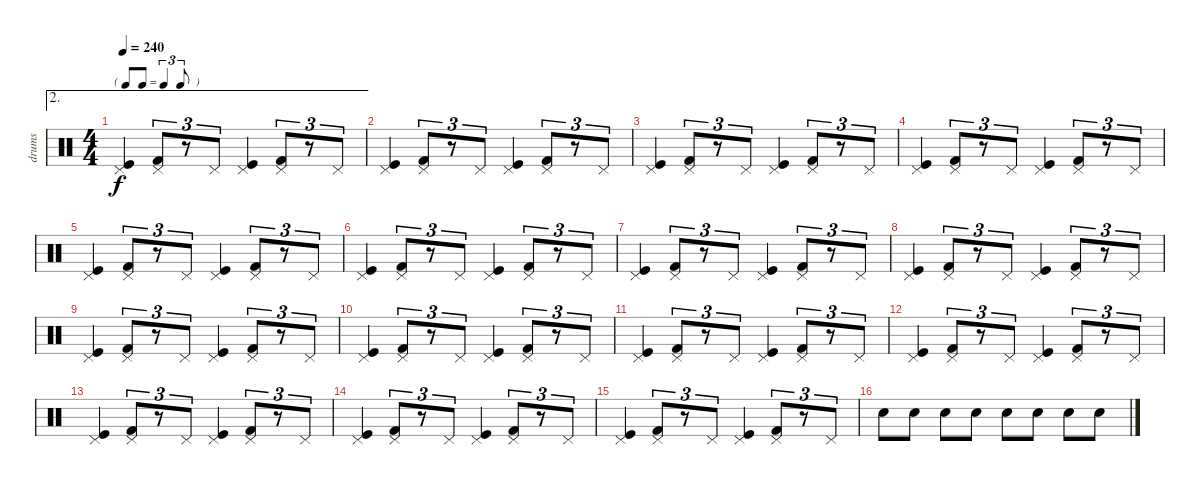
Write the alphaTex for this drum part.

\track ("drums" "drums") {instrument percussion}
\staff {score}
\articulation defaults
\ae 2
\ts (4 4)
\tf triplet8th
\tempo 240
\clef neutral
\ks c
("Pedal Hi-Hat (hit)" "Kick (hit)").4{dy f} ("Pedal Hi-Hat (hit)" "Kick (hit) 2").8{tu (3 2)} r.8{tu (3 2)} "Pedal Hi-Hat (hit)".8{tu (3 2)} ("Pedal Hi-Hat (hit)" "Kick (hit)").4 ("Pedal Hi-Hat (hit)" "Kick (hit) 2").8{tu (3 2)} r.8{tu (3 2)} "Pedal Hi-Hat (hit)".8{tu (3 2)} |
("Pedal Hi-Hat (hit)" "Kick (hit)").4 ("Pedal Hi-Hat (hit)" "Kick (hit) 2").8{tu (3 2)} r.8{tu (3 2)} "Pedal Hi-Hat (hit)".8{tu (3 2)} ("Pedal Hi-Hat (hit)" "Kick (hit)").4 ("Pedal Hi-Hat (hit)" "Kick (hit) 2").8{tu (3 2)} r.8{tu (3 2)} "Pedal Hi-Hat (hit)".8{tu (3 2)} |
("Pedal Hi-Hat (hit)" "Kick (hit)").4 ("Pedal Hi-Hat (hit)" "Kick (hit) 2").8{tu (3 2)} r.8{tu (3 2)} "Pedal Hi-Hat (hit)".8{tu (3 2)} ("Pedal Hi-Hat (hit)" "Kick (hit)").4 ("Pedal Hi-Hat (hit)" "Kick (hit) 2").8{tu (3 2)} r.8{tu (3 2)} "Pedal Hi-Hat (hit)".8{tu (3 2)} |
("Pedal Hi-Hat (hit)" "Kick (hit)").4 ("Pedal Hi-Hat (hit)" "Kick (hit) 2").8{tu (3 2)} r.8{tu (3 2)} "Pedal Hi-Hat (hit)".8{tu (3 2)} ("Pedal Hi-Hat (hit)" "Kick (hit)").4 ("Pedal Hi-Hat (hit)" "Kick (hit) 2").8{tu (3 2)} r.8{tu (3 2)} "Pedal Hi-Hat (hit)".8{tu (3 2)} |
("Pedal Hi-Hat (hit)" "Kick (hit)").4 ("Pedal Hi-Hat (hit)" "Kick (hit) 2").8{tu (3 2)} r.8{tu (3 2)} "Pedal Hi-Hat (hit)".8{tu (3 2)} ("Pedal Hi-Hat (hit)" "Kick (hit)").4 ("Pedal Hi-Hat (hit)" "Kick (hit) 2").8{tu (3 2)} r.8{tu (3 2)} "Pedal Hi-Hat (hit)".8{tu (3 2)} |
("Pedal Hi-Hat (hit)" "Kick (hit)").4 ("Pedal Hi-Hat (hit)" "Kick (hit) 2").8{tu (3 2)} r.8{tu (3 2)} "Pedal Hi-Hat (hit)".8{tu (3 2)} ("Pedal Hi-Hat (hit)" "Kick (hit)").4 ("Pedal Hi-Hat (hit)" "Kick (hit) 2").8{tu (3 2)} r.8{tu (3 2)} "Pedal Hi-Hat (hit)".8{tu (3 2)} |
("Pedal Hi-Hat (hit)" "Kick (hit)").4 ("Pedal Hi-Hat (hit)" "Kick (hit) 2").8{tu (3 2)} r.8{tu (3 2)} "Pedal Hi-Hat (hit)".8{tu (3 2)} ("Pedal Hi-Hat (hit)" "Kick (hit)").4 ("Pedal Hi-Hat (hit)" "Kick (hit) 2").8{tu (3 2)} r.8{tu (3 2)} "Pedal Hi-Hat (hit)".8{tu (3 2)} |
("Pedal Hi-Hat (hit)" "Kick (hit)").4 ("Pedal Hi-Hat (hit)" "Kick (hit) 2").8{tu (3 2)} r.8{tu (3 2)} "Pedal Hi-Hat (hit)".8{tu (3 2)} ("Pedal Hi-Hat (hit)" "Kick (hit)").4 ("Pedal Hi-Hat (hit)" "Kick (hit) 2").8{tu (3 2)} r.8{tu (3 2)} "Pedal Hi-Hat (hit)".8{tu (3 2)} |
("Pedal Hi-Hat (hit)" "Kick (hit)").4 ("Pedal Hi-Hat (hit)" "Kick (hit) 2").8{tu (3 2)} r.8{tu (3 2)} "Pedal Hi-Hat (hit)".8{tu (3 2)} ("Pedal Hi-Hat (hit)" "Kick (hit)").4 ("Pedal Hi-Hat (hit)" "Kick (hit) 2").8{tu (3 2)} r.8{tu (3 2)} "Pedal Hi-Hat (hit)".8{tu (3 2)} |
("Pedal Hi-Hat (hit)" "Kick (hit)").4 ("Pedal Hi-Hat (hit)" "Kick (hit) 2").8{tu (3 2)} r.8{tu (3 2)} "Pedal Hi-Hat (hit)".8{tu (3 2)} ("Pedal Hi-Hat (hit)" "Kick (hit)").4 ("Pedal Hi-Hat (hit)" "Kick (hit) 2").8{tu (3 2)} r.8{tu (3 2)} "Pedal Hi-Hat (hit)".8{tu (3 2)} |
("Pedal Hi-Hat (hit)" "Kick (hit)").4 ("Pedal Hi-Hat (hit)" "Kick (hit) 2").8{tu (3 2)} r.8{tu (3 2)} "Pedal Hi-Hat (hit)".8{tu (3 2)} ("Pedal Hi-Hat (hit)" "Kick (hit)").4 ("Pedal Hi-Hat (hit)" "Kick (hit) 2").8{tu (3 2)} r.8{tu (3 2)} "Pedal Hi-Hat (hit)".8{tu (3 2)} |
("Pedal Hi-Hat (hit)" "Kick (hit)").4 ("Pedal Hi-Hat (hit)" "Kick (hit) 2").8{tu (3 2)} r.8{tu (3 2)} "Pedal Hi-Hat (hit)".8{tu (3 2)} ("Pedal Hi-Hat (hit)" "Kick (hit)").4 ("Pedal Hi-Hat (hit)" "Kick (hit) 2").8{tu (3 2)} r.8{tu (3 2)} "Pedal Hi-Hat (hit)".8{tu (3 2)} |
("Pedal Hi-Hat (hit)" "Kick (hit)").4 ("Pedal Hi-Hat (hit)" "Kick (hit) 2").8{tu (3 2)} r.8{tu (3 2)} "Pedal Hi-Hat (hit)".8{tu (3 2)} ("Pedal Hi-Hat (hit)" "Kick (hit)").4 ("Pedal Hi-Hat (hit)" "Kick (hit) 2").8{tu (3 2)} r.8{tu (3 2)} "Pedal Hi-Hat (hit)".8{tu (3 2)} |
("Pedal Hi-Hat (hit)" "Kick (hit)").4 ("Pedal Hi-Hat (hit)" "Kick (hit) 2").8{tu (3 2)} r.8{tu (3 2)} "Pedal Hi-Hat (hit)".8{tu (3 2)} ("Pedal Hi-Hat (hit)" "Kick (hit)").4 ("Pedal Hi-Hat (hit)" "Kick (hit) 2").8{tu (3 2)} r.8{tu (3 2)} "Pedal Hi-Hat (hit)".8{tu (3 2)} |
("Pedal Hi-Hat (hit)" "Kick (hit)").4 ("Pedal Hi-Hat (hit)" "Kick (hit) 2").8{tu (3 2)} r.8{tu (3 2)} "Pedal Hi-Hat (hit)".8{tu (3 2)} ("Pedal Hi-Hat (hit)" "Kick (hit)").4 ("Pedal Hi-Hat (hit)" "Kick (hit) 2").8{tu (3 2)} r.8{tu (3 2)} "Pedal Hi-Hat (hit)".8{tu (3 2)} |
"Snare (hit)"{x}.8 "Electric Snare (hit)".8 "Electric Snare (hit)".8 "Electric Snare (hit)".8 "Electric Snare (hit)".8 "Electric Snare (hit)".8 "Electric Snare (hit)".8 "Electric Snare (hit)".8
